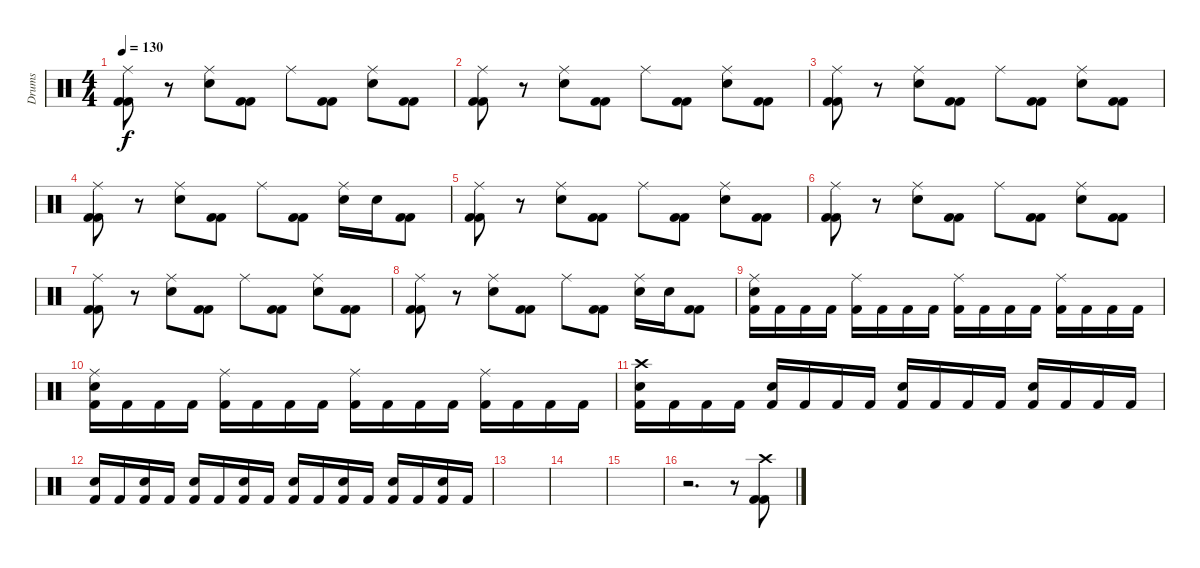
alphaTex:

\track ("Drums" "Drums") {instrument percussion}
\staff {score}
\articulation defaults
\ts (4 4)
\tempo 130
\clef neutral
\ks c
("Ride (middle)" "Kick (hit) 2" "Kick (hit) 2").8{dy f} r.8 ("Ride (middle)" "Electric Snare (hit)").8 ("Kick (hit) 2" "Kick (hit) 2").8 "Ride (middle)".8 ("Kick (hit) 2" "Kick (hit) 2").8 ("Ride (middle)" "Electric Snare (hit)").8 ("Kick (hit) 2" "Kick (hit) 2").8 |
("Ride (middle)" "Kick (hit) 2" "Kick (hit) 2").8 r.8 ("Ride (middle)" "Electric Snare (hit)").8 ("Kick (hit) 2" "Kick (hit) 2").8 "Ride (middle)".8 ("Kick (hit) 2" "Kick (hit) 2").8 ("Ride (middle)" "Electric Snare (hit)").8 ("Kick (hit) 2" "Kick (hit) 2").8 |
("Ride (middle)" "Kick (hit) 2" "Kick (hit) 2").8 r.8 ("Ride (middle)" "Electric Snare (hit)").8 ("Kick (hit) 2" "Kick (hit) 2").8 "Ride (middle)".8 ("Kick (hit) 2" "Kick (hit) 2").8 ("Ride (middle)" "Electric Snare (hit)").8 ("Kick (hit) 2" "Kick (hit) 2").8 |
("Ride (middle)" "Kick (hit) 2" "Kick (hit) 2").8 r.8 ("Ride (middle)" "Electric Snare (hit)").8 ("Kick (hit) 2" "Kick (hit) 2").8 "Ride (middle)".8 ("Kick (hit) 2" "Kick (hit) 2").8 ("Ride (middle)" "Electric Snare (hit)").16 "Electric Snare (hit)".16 ("Kick (hit) 2" "Kick (hit) 2").8 |
("Ride (middle)" "Kick (hit) 2" "Kick (hit) 2").8 r.8 ("Ride (middle)" "Electric Snare (hit)").8 ("Kick (hit) 2" "Kick (hit) 2").8 "Ride (middle)".8 ("Kick (hit) 2" "Kick (hit) 2").8 ("Ride (middle)" "Electric Snare (hit)").8 ("Kick (hit) 2" "Kick (hit) 2").8 |
("Ride (middle)" "Kick (hit) 2" "Kick (hit) 2").8 r.8 ("Ride (middle)" "Electric Snare (hit)").8 ("Kick (hit) 2" "Kick (hit) 2").8 "Ride (middle)".8 ("Kick (hit) 2" "Kick (hit) 2").8 ("Ride (middle)" "Electric Snare (hit)").8 ("Kick (hit) 2" "Kick (hit) 2").8 |
("Ride (middle)" "Kick (hit) 2" "Kick (hit) 2").8 r.8 ("Ride (middle)" "Electric Snare (hit)").8 ("Kick (hit) 2" "Kick (hit) 2").8 "Ride (middle)".8 ("Kick (hit) 2" "Kick (hit) 2").8 ("Ride (middle)" "Electric Snare (hit)").8 ("Kick (hit) 2" "Kick (hit) 2").8 |
("Ride (middle)" "Kick (hit) 2" "Kick (hit) 2").8 r.8 ("Ride (middle)" "Electric Snare (hit)").8 ("Kick (hit) 2" "Kick (hit) 2").8 "Ride (middle)".8 ("Kick (hit) 2" "Kick (hit) 2").8 ("Ride (middle)" "Electric Snare (hit)").16 "Electric Snare (hit)".16 ("Kick (hit) 2" "Kick (hit) 2").8 |
("Ride (middle)" "Electric Snare (hit)" "Kick (hit) 2").16 "Kick (hit) 2".16 "Kick (hit) 2".16 "Kick (hit) 2".16 ("Ride (middle)" "Kick (hit) 2").16 "Kick (hit) 2".16 "Kick (hit) 2".16 "Kick (hit) 2".16 ("Ride (middle)" "Kick (hit) 2").16 "Kick (hit) 2".16 "Kick (hit) 2".16 "Kick (hit) 2".16 ("Ride (middle)" "Kick (hit) 2").16 "Kick (hit) 2".16 "Kick (hit) 2".16 "Kick (hit) 2".16 |
("Ride (middle)" "Electric Snare (hit)" "Kick (hit) 2").16 "Kick (hit) 2".16 "Kick (hit) 2".16 "Kick (hit) 2".16 ("Ride (middle)" "Kick (hit) 2").16 "Kick (hit) 2".16 "Kick (hit) 2".16 "Kick (hit) 2".16 ("Ride (middle)" "Kick (hit) 2").16 "Kick (hit) 2".16 "Kick (hit) 2".16 "Kick (hit) 2".16 ("Ride (middle)" "Kick (hit) 2").16 "Kick (hit) 2".16 "Kick (hit) 2".16 "Kick (hit) 2".16 |
("Crash high (hit)" "Electric Snare (hit)" "Kick (hit) 2").16 "Kick (hit) 2".16 "Kick (hit) 2".16 "Kick (hit) 2".16 ("Electric Snare (hit)" "Kick (hit) 2").16 "Kick (hit) 2".16 "Kick (hit) 2".16 "Kick (hit) 2".16 ("Electric Snare (hit)" "Kick (hit) 2").16 "Kick (hit) 2".16 "Kick (hit) 2".16 "Kick (hit) 2".16 ("Electric Snare (hit)" "Kick (hit) 2").16 "Kick (hit) 2".16 "Kick (hit) 2".16 "Kick (hit) 2".16 |
("Electric Snare (hit)" "Kick (hit) 2").16 "Kick (hit) 2".16 ("Electric Snare (hit)" "Kick (hit) 2").16 "Kick (hit) 2".16 ("Electric Snare (hit)" "Kick (hit) 2").16 "Kick (hit) 2".16 ("Electric Snare (hit)" "Kick (hit) 2").16 "Kick (hit) 2".16 ("Electric Snare (hit)" "Kick (hit) 2").16 "Kick (hit) 2".16 ("Electric Snare (hit)" "Kick (hit) 2").16 "Kick (hit) 2".16 ("Electric Snare (hit)" "Kick (hit) 2").16 "Kick (hit) 2".16 ("Electric Snare (hit)" "Kick (hit) 2").16 "Kick (hit) 2".16 |
|
|
|
r.2{d} r.8 ("Crash high (hit)" "Kick (hit) 2" "Kick (hit) 2").8
